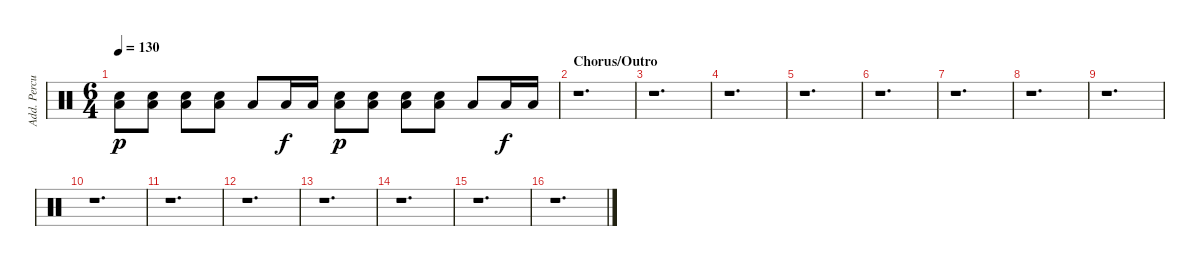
\track ("Add. Percussion" "Add. Percu") {instrument percussion}
\staff {score}
\articulation defaults
\ts (6 4)
\tempo 130
\clef neutral
\ks c
("Electric Snare (hit)" "Low Floor Tom (hit)").8{dy p} ("Electric Snare (hit)" "Low Floor Tom (hit)").8 ("Electric Snare (hit)" "Low Floor Tom (hit)").8 ("Electric Snare (hit)" "Low Floor Tom (hit)").8 "Low Floor Tom (hit)".8 "Low Tom (hit)".16{dy f} "Low Floor Tom (hit)".16 ("Electric Snare (hit)" "Low Floor Tom (hit)").8{dy p} ("Electric Snare (hit)" "Low Floor Tom (hit)").8 ("Electric Snare (hit)" "Low Floor Tom (hit)").8 ("Electric Snare (hit)" "Low Floor Tom (hit)").8 "Low Floor Tom (hit)".8 "Low Tom (hit)".16{dy f} "Low Floor Tom (hit)".16 |
\section ("" "Chorus/Outro")
r.1{d} |
r.1{d} |
r.1{d} |
r.1{d} |
r.1{d} |
r.1{d} |
r.1{d} |
r.1{d} |
r.1{d} |
r.1{d} |
r.1{d} |
r.1{d} |
r.1{d} |
r.1{d} |
r.1{d}
